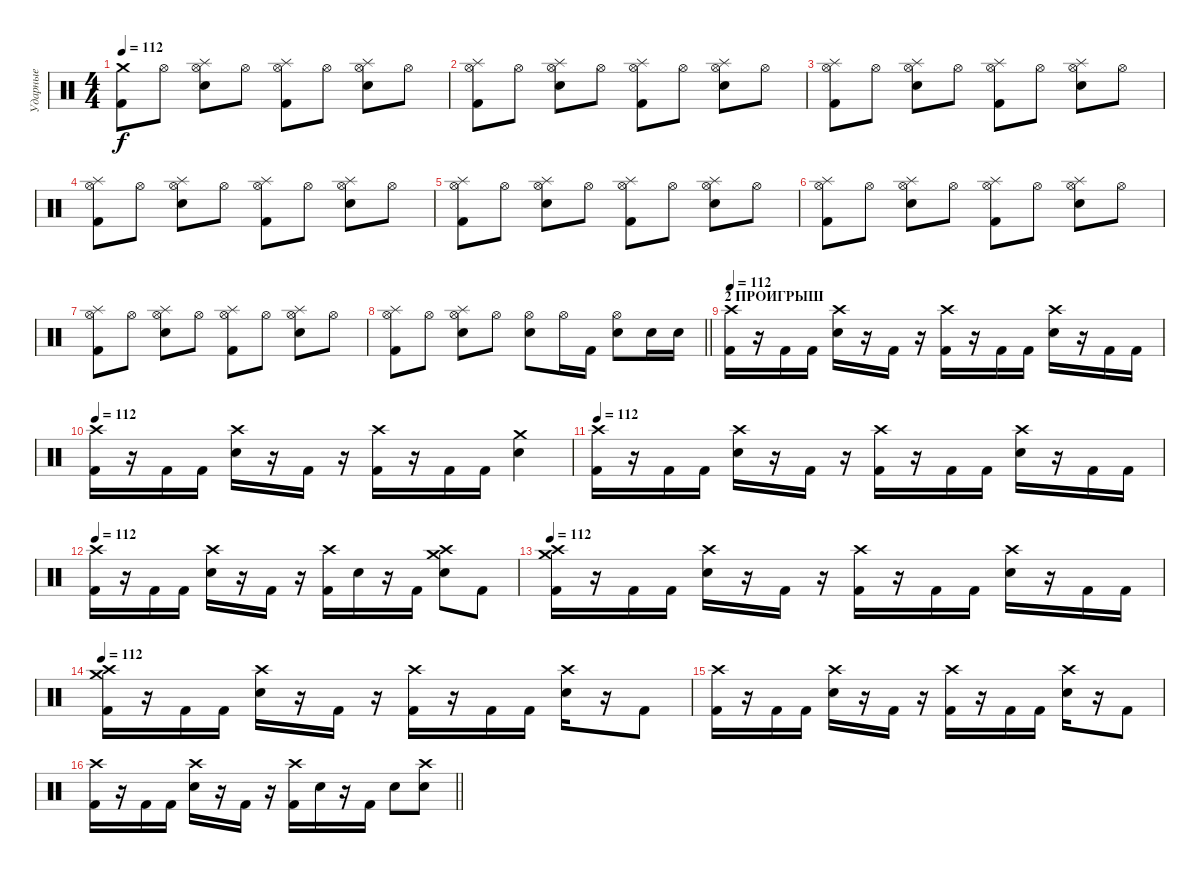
\track ("Ударные" "Ударные") {instrument percussion}
\staff {score}
\articulation defaults
\ts (4 4)
\tempo 112
\clef neutral
\ks c
("Crash medium (hit)" "Kick (hit) 2").8{dy f} "Hi-Hat (open)".8 ("Hi-Hat (open)" "Splash (hit)" "Snare (hit) 2").8 "Hi-Hat (open)".8 ("Hi-Hat (open)" "Splash (hit)" "Kick (hit) 2").8 "Hi-Hat (open)".8 ("Hi-Hat (open)" "Splash (hit)" "Snare (hit) 2").8 "Hi-Hat (open)".8 |
("Hi-Hat (open)" "Splash (hit)" "Kick (hit) 2").8 "Hi-Hat (open)".8 ("Hi-Hat (open)" "Splash (hit)" "Snare (hit) 2").8 "Hi-Hat (open)".8 ("Hi-Hat (open)" "Splash (hit)" "Kick (hit) 2").8 "Hi-Hat (open)".8 ("Hi-Hat (open)" "Splash (hit)" "Snare (hit) 2").8 "Hi-Hat (open)".8 |
("Hi-Hat (open)" "Splash (hit)" "Kick (hit) 2").8 "Hi-Hat (open)".8 ("Hi-Hat (open)" "Splash (hit)" "Snare (hit) 2").8 "Hi-Hat (open)".8 ("Hi-Hat (open)" "Splash (hit)" "Kick (hit) 2").8 "Hi-Hat (open)".8 ("Hi-Hat (open)" "Splash (hit)" "Snare (hit) 2").8 "Hi-Hat (open)".8 |
("Hi-Hat (open)" "Splash (hit)" "Kick (hit) 2").8 "Hi-Hat (open)".8 ("Hi-Hat (open)" "Splash (hit)" "Snare (hit) 2").8 "Hi-Hat (open)".8 ("Hi-Hat (open)" "Splash (hit)" "Kick (hit) 2").8 "Hi-Hat (open)".8 ("Hi-Hat (open)" "Splash (hit)" "Snare (hit) 2").8 "Hi-Hat (open)".8 |
("Hi-Hat (open)" "Splash (hit)" "Kick (hit) 2").8 "Hi-Hat (open)".8 ("Hi-Hat (open)" "Splash (hit)" "Snare (hit) 2").8 "Hi-Hat (open)".8 ("Hi-Hat (open)" "Splash (hit)" "Kick (hit) 2").8 "Hi-Hat (open)".8 ("Hi-Hat (open)" "Splash (hit)" "Snare (hit) 2").8 "Hi-Hat (open)".8 |
("Hi-Hat (open)" "Splash (hit)" "Kick (hit) 2").8 "Hi-Hat (open)".8 ("Hi-Hat (open)" "Splash (hit)" "Snare (hit) 2").8 "Hi-Hat (open)".8 ("Hi-Hat (open)" "Splash (hit)" "Kick (hit) 2").8 "Hi-Hat (open)".8 ("Hi-Hat (open)" "Splash (hit)" "Snare (hit) 2").8 "Hi-Hat (open)".8 |
("Hi-Hat (open)" "Splash (hit)" "Kick (hit) 2").8 "Hi-Hat (open)".8 ("Hi-Hat (open)" "Splash (hit)" "Snare (hit) 2").8 "Hi-Hat (open)".8 ("Hi-Hat (open)" "Splash (hit)" "Kick (hit) 2").8 "Hi-Hat (open)".8 ("Hi-Hat (open)" "Splash (hit)" "Snare (hit) 2").8 "Hi-Hat (open)".8 |
\barLineRight lightlight
("Hi-Hat (open)" "Splash (hit)" "Kick (hit) 2").8 "Hi-Hat (open)".8 ("Hi-Hat (open)" "Splash (hit)" "Snare (hit) 2").8 "Hi-Hat (open)".8 ("Hi-Hat (open)" "Snare (hit) 2").8 "Hi-Hat (open)".16 "Kick (hit) 2".16 ("Hi-Hat (open)" "Snare (hit) 2").8 "Snare (hit) 2".16 "Snare (hit) 2".16 |
\section ("" "2 ПРОИГРЫШ")
\tempo 112
("Crash high (hit)" "Kick (hit) 2").16 r.16 "Kick (hit) 2".16 "Kick (hit) 2".16 ("Crash high (hit)" "Snare (hit) 2").16 r.16 "Kick (hit) 2".16 r.16 ("Crash high (hit)" "Kick (hit) 2").16 r.16 "Kick (hit) 2".16 "Kick (hit) 2".16 ("Crash high (hit)" "Snare (hit) 2").16 r.16 "Kick (hit) 2".16 "Kick (hit) 2".16 |
\tempo 112
("Crash high (hit)" "Kick (hit) 2").16 r.16 "Kick (hit) 2".16 "Kick (hit) 2".16 ("Crash high (hit)" "Snare (hit) 2").16 r.16 "Kick (hit) 2".16 r.16 ("Crash high (hit)" "Kick (hit) 2").16 r.16 "Kick (hit) 2".16 "Kick (hit) 2".16 ("Crash medium (hit)" "Snare (hit) 2").4 |
\tempo 112
("Crash high (hit)" "Kick (hit) 2").16 r.16 "Kick (hit) 2".16 "Kick (hit) 2".16 ("Crash high (hit)" "Snare (hit) 2").16 r.16 "Kick (hit) 2".16 r.16 ("Crash high (hit)" "Kick (hit) 2").16 r.16 "Kick (hit) 2".16 "Kick (hit) 2".16 ("Crash high (hit)" "Snare (hit) 2").16 r.16 "Kick (hit) 2".16 "Kick (hit) 2".16 |
\tempo 112
("Crash high (hit)" "Kick (hit) 2").16 r.16 "Kick (hit) 2".16 "Kick (hit) 2".16 ("Crash high (hit)" "Snare (hit) 2").16 r.16 "Kick (hit) 2".16 r.16 ("Crash high (hit)" "Kick (hit) 2").16 "Snare (hit) 2".16 r.16 "Kick (hit) 2".16 ("Crash high (hit)" "Crash medium (hit)" "Snare (hit) 2").8 "Kick (hit) 2".8 |
\tempo 112
("Crash high (hit)" "Crash medium (hit)" "Kick (hit) 2").16 r.16 "Kick (hit) 2".16 "Kick (hit) 2".16 ("Crash high (hit)" "Snare (hit) 2").16 r.16 "Kick (hit) 2".16 r.16 ("Crash high (hit)" "Kick (hit) 2").16 r.16 "Kick (hit) 2".16 "Kick (hit) 2".16 ("Crash high (hit)" "Snare (hit) 2").16 r.16 "Kick (hit) 2".16 "Kick (hit) 2".16 |
\tempo 112
("Crash high (hit)" "Crash medium (hit)" "Kick (hit) 2").16 r.16 "Kick (hit) 2".16 "Kick (hit) 2".16 ("Crash high (hit)" "Snare (hit) 2").16 r.16 "Kick (hit) 2".16 r.16 ("Crash high (hit)" "Kick (hit) 2").16 r.16 "Kick (hit) 2".16 "Kick (hit) 2".16 ("Crash high (hit)" "Snare (hit) 2").16 r.16 "Kick (hit) 2".8 |
("Crash high (hit)" "Kick (hit) 2").16 r.16 "Kick (hit) 2".16 "Kick (hit) 2".16 ("Crash high (hit)" "Snare (hit) 2").16 r.16 "Kick (hit) 2".16 r.16 ("Crash high (hit)" "Kick (hit) 2").16 r.16 "Kick (hit) 2".16 "Kick (hit) 2".16 ("Crash high (hit)" "Snare (hit) 2").16 r.16 "Kick (hit) 2".8 |
\barLineRight lightlight
("Crash high (hit)" "Kick (hit) 2").16 r.16 "Kick (hit) 2".16 "Kick (hit) 2".16 ("Crash high (hit)" "Snare (hit) 2").16 r.16 "Kick (hit) 2".16 r.16 ("Crash high (hit)" "Kick (hit) 2").16 "Snare (hit) 2".16 r.16 "Kick (hit) 2".16 "Snare (hit) 2".8 ("Crash high (hit)" "Snare (hit) 2").8
